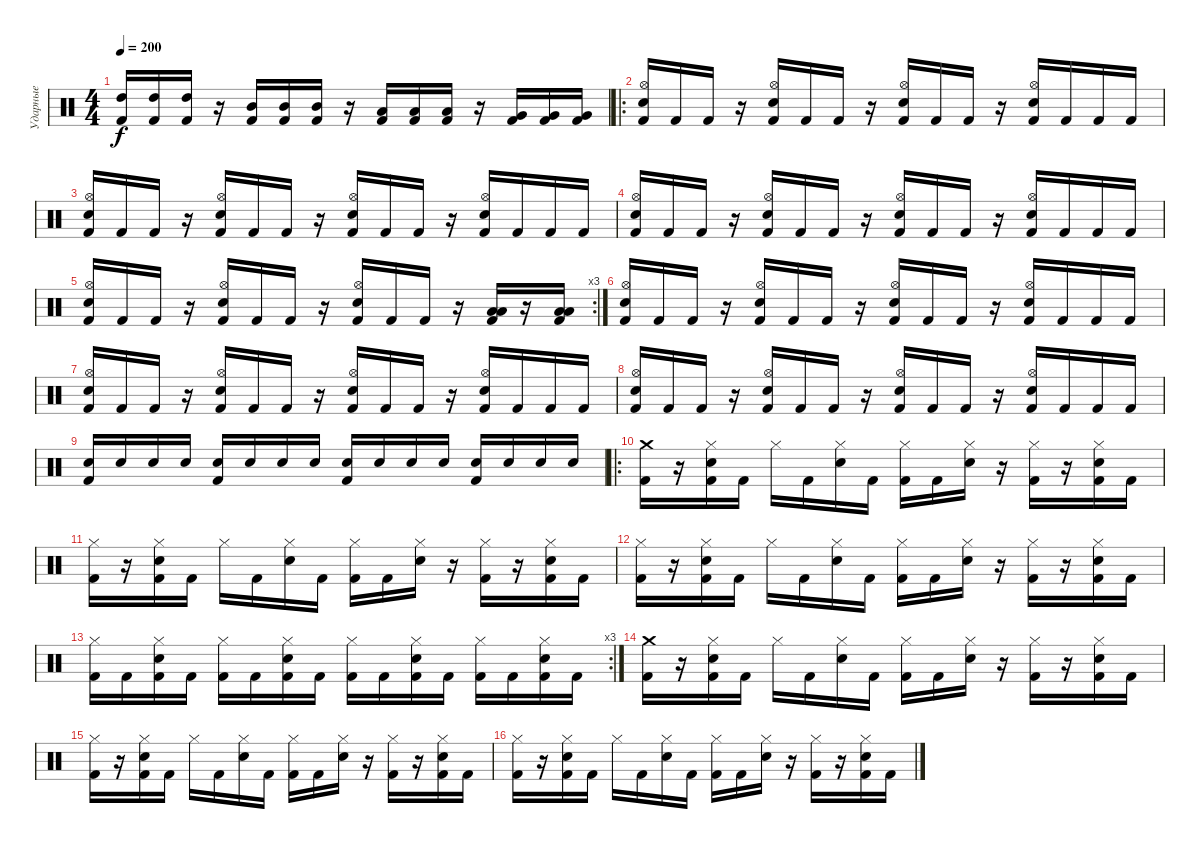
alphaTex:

\track ("Ударные" "Ударные") {instrument percussion}
\staff {score}
\articulation defaults
\ts (4 4)
\tempo 200
\clef neutral
\ks c
("High Tom (hit)" "Kick (hit) 2").16{dy f} ("High Tom (hit)" "Kick (hit) 2").16 ("High Tom (hit)" "Kick (hit) 2").16 r.16 ("Mid Tom (hit)" "Kick (hit) 2").16 ("Mid Tom (hit)" "Kick (hit) 2").16 ("Mid Tom (hit)" "Kick (hit) 2").16 r.16 ("Low Tom (hit)" "Kick (hit) 2").16 ("Low Tom (hit)" "Kick (hit) 2").16 ("Low Tom (hit)" "Kick (hit) 2").16 r.16 ("Very Low Tom (hit)" "Kick (hit) 2").16 ("Very Low Tom (hit)" "Kick (hit) 2").16 ("Very Low Tom (hit)" "Kick (hit) 2").16 |
\ro
("Hi-Hat (open)" "Snare (hit) 2" "Kick (hit) 2").16 "Kick (hit) 2".16 "Kick (hit) 2".16 r.16 ("Hi-Hat (open)" "Snare (hit) 2" "Kick (hit) 2").16 "Kick (hit) 2".16 "Kick (hit) 2".16 r.16 ("Hi-Hat (open)" "Snare (hit) 2" "Kick (hit) 2").16 "Kick (hit) 2".16 "Kick (hit) 2".16 r.16 ("Hi-Hat (open)" "Snare (hit) 2" "Kick (hit) 2").16 "Kick (hit) 2".16 "Kick (hit) 2".16 "Kick (hit) 2".16 |
("Hi-Hat (open)" "Snare (hit) 2" "Kick (hit) 2").16 "Kick (hit) 2".16 "Kick (hit) 2".16 r.16 ("Hi-Hat (open)" "Snare (hit) 2" "Kick (hit) 2").16 "Kick (hit) 2".16 "Kick (hit) 2".16 r.16 ("Hi-Hat (open)" "Snare (hit) 2" "Kick (hit) 2").16 "Kick (hit) 2".16 "Kick (hit) 2".16 r.16 ("Hi-Hat (open)" "Snare (hit) 2" "Kick (hit) 2").16 "Kick (hit) 2".16 "Kick (hit) 2".16 "Kick (hit) 2".16 |
("Hi-Hat (open)" "Snare (hit) 2" "Kick (hit) 2").16 "Kick (hit) 2".16 "Kick (hit) 2".16 r.16 ("Hi-Hat (open)" "Snare (hit) 2" "Kick (hit) 2").16 "Kick (hit) 2".16 "Kick (hit) 2".16 r.16 ("Hi-Hat (open)" "Snare (hit) 2" "Kick (hit) 2").16 "Kick (hit) 2".16 "Kick (hit) 2".16 r.16 ("Hi-Hat (open)" "Snare (hit) 2" "Kick (hit) 2").16 "Kick (hit) 2".16 "Kick (hit) 2".16 "Kick (hit) 2".16 |
\rc 3
("Hi-Hat (open)" "Snare (hit) 2" "Kick (hit) 2").16 "Kick (hit) 2".16 "Kick (hit) 2".16 r.16 ("Hi-Hat (open)" "Snare (hit) 2" "Kick (hit) 2").16 "Kick (hit) 2".16 "Kick (hit) 2".16 r.16 ("Hi-Hat (open)" "Snare (hit) 2" "Kick (hit) 2").16 "Kick (hit) 2".16 "Kick (hit) 2".16 r.16 ("Low Tom (hit)" "Low Floor Tom (hit)" "Kick (hit) 2").16 r.16 ("Low Tom (hit)" "Low Floor Tom (hit)" "Kick (hit) 2").16 |
("Hi-Hat (open)" "Snare (hit) 2" "Kick (hit) 2").16 "Kick (hit) 2".16 "Kick (hit) 2".16 r.16 ("Hi-Hat (open)" "Snare (hit) 2" "Kick (hit) 2").16 "Kick (hit) 2".16 "Kick (hit) 2".16 r.16 ("Hi-Hat (open)" "Snare (hit) 2" "Kick (hit) 2").16 "Kick (hit) 2".16 "Kick (hit) 2".16 r.16 ("Hi-Hat (open)" "Snare (hit) 2" "Kick (hit) 2").16 "Kick (hit) 2".16 "Kick (hit) 2".16 "Kick (hit) 2".16 |
("Hi-Hat (open)" "Snare (hit) 2" "Kick (hit) 2").16 "Kick (hit) 2".16 "Kick (hit) 2".16 r.16 ("Hi-Hat (open)" "Snare (hit) 2" "Kick (hit) 2").16 "Kick (hit) 2".16 "Kick (hit) 2".16 r.16 ("Hi-Hat (open)" "Snare (hit) 2" "Kick (hit) 2").16 "Kick (hit) 2".16 "Kick (hit) 2".16 r.16 ("Hi-Hat (open)" "Snare (hit) 2" "Kick (hit) 2").16 "Kick (hit) 2".16 "Kick (hit) 2".16 "Kick (hit) 2".16 |
("Hi-Hat (open)" "Snare (hit) 2" "Kick (hit) 2").16 "Kick (hit) 2".16 "Kick (hit) 2".16 r.16 ("Hi-Hat (open)" "Snare (hit) 2" "Kick (hit) 2").16 "Kick (hit) 2".16 "Kick (hit) 2".16 r.16 ("Hi-Hat (open)" "Snare (hit) 2" "Kick (hit) 2").16 "Kick (hit) 2".16 "Kick (hit) 2".16 r.16 ("Hi-Hat (open)" "Snare (hit) 2" "Kick (hit) 2").16 "Kick (hit) 2".16 "Kick (hit) 2".16 "Kick (hit) 2".16 |
("Snare (hit) 2" "Kick (hit) 2").16 "Snare (hit) 2".16 "Snare (hit) 2".16 "Snare (hit) 2".16 ("Snare (hit) 2" "Kick (hit) 2").16 "Snare (hit) 2".16 "Snare (hit) 2".16 "Snare (hit) 2".16 ("Snare (hit) 2" "Kick (hit) 2").16 "Snare (hit) 2".16 "Snare (hit) 2".16 "Snare (hit) 2".16 ("Snare (hit) 2" "Kick (hit) 2").16 "Snare (hit) 2".16 "Snare (hit) 2".16 "Snare (hit) 2".16 |
\ro
("Crash medium (hit)" "Kick (hit) 2").16 r.16 ("Hi-Hat (closed)" "Snare (hit) 2" "Kick (hit) 2").16 "Kick (hit) 2".16 "Hi-Hat (closed)".16 "Kick (hit) 2".16 ("Hi-Hat (closed)" "Snare (hit) 2").16 "Kick (hit) 2".16 ("Hi-Hat (closed)" "Kick (hit) 2").16 "Kick (hit) 2".16 ("Hi-Hat (closed)" "Snare (hit) 2").16 r.16 ("Hi-Hat (closed)" "Kick (hit) 2").16 r.16 ("Hi-Hat (closed)" "Snare (hit) 2" "Kick (hit) 2").16 "Kick (hit) 2".16 |
("Hi-Hat (closed)" "Kick (hit) 2").16 r.16 ("Hi-Hat (closed)" "Snare (hit) 2" "Kick (hit) 2").16 "Kick (hit) 2".16 "Hi-Hat (closed)".16 "Kick (hit) 2".16 ("Hi-Hat (closed)" "Snare (hit) 2").16 "Kick (hit) 2".16 ("Hi-Hat (closed)" "Kick (hit) 2").16 "Kick (hit) 2".16 ("Hi-Hat (closed)" "Snare (hit) 2").16 r.16 ("Hi-Hat (closed)" "Kick (hit) 2").16 r.16 ("Hi-Hat (closed)" "Snare (hit) 2" "Kick (hit) 2").16 "Kick (hit) 2".16 |
("Hi-Hat (closed)" "Kick (hit) 2").16 r.16 ("Hi-Hat (closed)" "Snare (hit) 2" "Kick (hit) 2").16 "Kick (hit) 2".16 "Hi-Hat (closed)".16 "Kick (hit) 2".16 ("Hi-Hat (closed)" "Snare (hit) 2").16 "Kick (hit) 2".16 ("Hi-Hat (closed)" "Kick (hit) 2").16 "Kick (hit) 2".16 ("Hi-Hat (closed)" "Snare (hit) 2").16 r.16 ("Hi-Hat (closed)" "Kick (hit) 2").16 r.16 ("Hi-Hat (closed)" "Snare (hit) 2" "Kick (hit) 2").16 "Kick (hit) 2".16 |
\rc 3
("Hi-Hat (closed)" "Kick (hit) 2").16 "Kick (hit) 2".16 ("Hi-Hat (closed)" "Snare (hit) 2" "Kick (hit) 2").16 "Kick (hit) 2".16 ("Hi-Hat (closed)" "Kick (hit) 2").16 "Kick (hit) 2".16 ("Hi-Hat (closed)" "Snare (hit) 2" "Kick (hit) 2").16 "Kick (hit) 2".16 ("Hi-Hat (closed)" "Kick (hit) 2").16 "Kick (hit) 2".16 ("Hi-Hat (closed)" "Snare (hit) 2" "Kick (hit) 2").16 "Kick (hit) 2".16 ("Hi-Hat (closed)" "Kick (hit) 2").16 "Kick (hit) 2".16 ("Hi-Hat (closed)" "Snare (hit) 2" "Kick (hit) 2").16 "Kick (hit) 2".16 |
("Crash medium (hit)" "Kick (hit) 2").16 r.16 ("Hi-Hat (closed)" "Snare (hit) 2" "Kick (hit) 2").16 "Kick (hit) 2".16 "Hi-Hat (closed)".16 "Kick (hit) 2".16 ("Hi-Hat (closed)" "Snare (hit) 2").16 "Kick (hit) 2".16 ("Hi-Hat (closed)" "Kick (hit) 2").16 "Kick (hit) 2".16 ("Hi-Hat (closed)" "Snare (hit) 2").16 r.16 ("Hi-Hat (closed)" "Kick (hit) 2").16 r.16 ("Hi-Hat (closed)" "Snare (hit) 2" "Kick (hit) 2").16 "Kick (hit) 2".16 |
("Hi-Hat (closed)" "Kick (hit) 2").16 r.16 ("Hi-Hat (closed)" "Snare (hit) 2" "Kick (hit) 2").16 "Kick (hit) 2".16 "Hi-Hat (closed)".16 "Kick (hit) 2".16 ("Hi-Hat (closed)" "Snare (hit) 2").16 "Kick (hit) 2".16 ("Hi-Hat (closed)" "Kick (hit) 2").16 "Kick (hit) 2".16 ("Hi-Hat (closed)" "Snare (hit) 2").16 r.16 ("Hi-Hat (closed)" "Kick (hit) 2").16 r.16 ("Hi-Hat (closed)" "Snare (hit) 2" "Kick (hit) 2").16 "Kick (hit) 2".16 |
("Hi-Hat (closed)" "Kick (hit) 2").16 r.16 ("Hi-Hat (closed)" "Snare (hit) 2" "Kick (hit) 2").16 "Kick (hit) 2".16 "Hi-Hat (closed)".16 "Kick (hit) 2".16 ("Hi-Hat (closed)" "Snare (hit) 2").16 "Kick (hit) 2".16 ("Hi-Hat (closed)" "Kick (hit) 2").16 "Kick (hit) 2".16 ("Hi-Hat (closed)" "Snare (hit) 2").16 r.16 ("Hi-Hat (closed)" "Kick (hit) 2").16 r.16 ("Hi-Hat (closed)" "Snare (hit) 2" "Kick (hit) 2").16 "Kick (hit) 2".16
